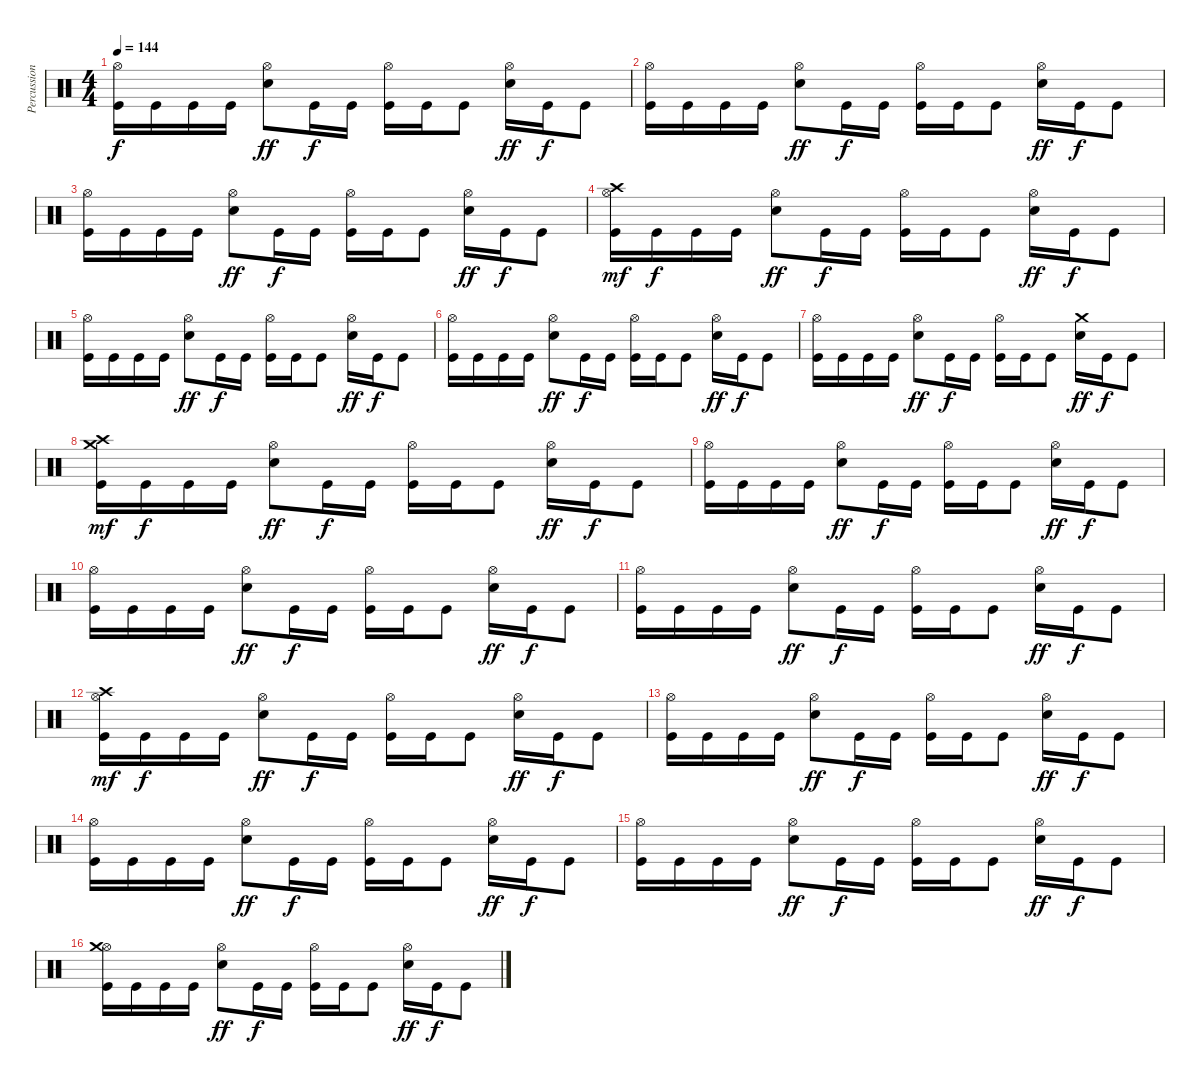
\track ("Percussions" "Percussion") {instrument percussion}
\staff {score}
\articulation defaults
\ts (4 4)
\tempo 144
\clef neutral
\ks c
("Kick (hit)" "Hi-Hat (open)").16{dy f} "Kick (hit)".16 "Kick (hit)".16 "Kick (hit)".16 ("Electric Snare (hit)" "Hi-Hat (open)").8{dy ff} "Kick (hit)".16{dy f} "Kick (hit)".16 ("Kick (hit)" "Hi-Hat (open)").16 "Kick (hit)".16 "Kick (hit)".8 ("Electric Snare (hit)" "Hi-Hat (open)").16{dy ff} "Kick (hit)".16{dy f} "Kick (hit)".8 |
("Kick (hit)" "Hi-Hat (open)").16 "Kick (hit)".16 "Kick (hit)".16 "Kick (hit)".16 ("Electric Snare (hit)" "Hi-Hat (open)").8{dy ff} "Kick (hit)".16{dy f} "Kick (hit)".16 ("Kick (hit)" "Hi-Hat (open)").16 "Kick (hit)".16 "Kick (hit)".8 ("Electric Snare (hit)" "Hi-Hat (open)").16{dy ff} "Kick (hit)".16{dy f} "Kick (hit)".8 |
("Kick (hit)" "Hi-Hat (open)").16 "Kick (hit)".16 "Kick (hit)".16 "Kick (hit)".16 ("Electric Snare (hit)" "Hi-Hat (open)").8{dy ff} "Kick (hit)".16{dy f} "Kick (hit)".16 ("Kick (hit)" "Hi-Hat (open)").16 "Kick (hit)".16 "Kick (hit)".8 ("Electric Snare (hit)" "Hi-Hat (open)").16{dy ff} "Kick (hit)".16{dy f} "Kick (hit)".8 |
("Kick (hit)" "Hi-Hat (open)" "Crash high (hit)").16{dy mf} "Kick (hit)".16{dy f} "Kick (hit)".16 "Kick (hit)".16 ("Electric Snare (hit)" "Hi-Hat (open)").8{dy ff} "Kick (hit)".16{dy f} "Kick (hit)".16 ("Kick (hit)" "Hi-Hat (open)").16 "Kick (hit)".16 "Kick (hit)".8 ("Electric Snare (hit)" "Hi-Hat (open)").16{dy ff} "Kick (hit)".16{dy f} "Kick (hit)".8 |
("Kick (hit)" "Hi-Hat (open)").16 "Kick (hit)".16 "Kick (hit)".16 "Kick (hit)".16 ("Electric Snare (hit)" "Hi-Hat (open)").8{dy ff} "Kick (hit)".16{dy f} "Kick (hit)".16 ("Kick (hit)" "Hi-Hat (open)").16 "Kick (hit)".16 "Kick (hit)".8 ("Electric Snare (hit)" "Hi-Hat (open)").16{dy ff} "Kick (hit)".16{dy f} "Kick (hit)".8 |
("Kick (hit)" "Hi-Hat (open)").16 "Kick (hit)".16 "Kick (hit)".16 "Kick (hit)".16 ("Electric Snare (hit)" "Hi-Hat (open)").8{dy ff} "Kick (hit)".16{dy f} "Kick (hit)".16 ("Kick (hit)" "Hi-Hat (open)").16 "Kick (hit)".16 "Kick (hit)".8 ("Electric Snare (hit)" "Hi-Hat (open)").16{dy ff} "Kick (hit)".16{dy f} "Kick (hit)".8 |
("Kick (hit)" "Hi-Hat (open)").16 "Kick (hit)".16 "Kick (hit)".16 "Kick (hit)".16 ("Electric Snare (hit)" "Hi-Hat (open)").8{dy ff} "Kick (hit)".16{dy f} "Kick (hit)".16 ("Kick (hit)" "Hi-Hat (open)").16 "Kick (hit)".16 "Kick (hit)".8 ("Electric Snare (hit)" "Crash medium (hit)").16{dy ff} "Kick (hit)".16{dy f} "Kick (hit)".8 |
("Kick (hit)" "Crash medium (hit)" "Crash high (hit)").16{dy mf} "Kick (hit)".16{dy f} "Kick (hit)".16 "Kick (hit)".16 ("Electric Snare (hit)" "Hi-Hat (open)").8{dy ff} "Kick (hit)".16{dy f} "Kick (hit)".16 ("Kick (hit)" "Hi-Hat (open)").16 "Kick (hit)".16 "Kick (hit)".8 ("Electric Snare (hit)" "Hi-Hat (open)").16{dy ff} "Kick (hit)".16{dy f} "Kick (hit)".8 |
("Kick (hit)" "Hi-Hat (open)").16 "Kick (hit)".16 "Kick (hit)".16 "Kick (hit)".16 ("Electric Snare (hit)" "Hi-Hat (open)").8{dy ff} "Kick (hit)".16{dy f} "Kick (hit)".16 ("Kick (hit)" "Hi-Hat (open)").16 "Kick (hit)".16 "Kick (hit)".8 ("Electric Snare (hit)" "Hi-Hat (open)").16{dy ff} "Kick (hit)".16{dy f} "Kick (hit)".8 |
("Kick (hit)" "Hi-Hat (open)").16 "Kick (hit)".16 "Kick (hit)".16 "Kick (hit)".16 ("Electric Snare (hit)" "Hi-Hat (open)").8{dy ff} "Kick (hit)".16{dy f} "Kick (hit)".16 ("Kick (hit)" "Hi-Hat (open)").16 "Kick (hit)".16 "Kick (hit)".8 ("Electric Snare (hit)" "Hi-Hat (open)").16{dy ff} "Kick (hit)".16{dy f} "Kick (hit)".8 |
("Kick (hit)" "Hi-Hat (open)").16 "Kick (hit)".16 "Kick (hit)".16 "Kick (hit)".16 ("Electric Snare (hit)" "Hi-Hat (open)").8{dy ff} "Kick (hit)".16{dy f} "Kick (hit)".16 ("Kick (hit)" "Hi-Hat (open)").16 "Kick (hit)".16 "Kick (hit)".8 ("Electric Snare (hit)" "Hi-Hat (open)").16{dy ff} "Kick (hit)".16{dy f} "Kick (hit)".8 |
("Kick (hit)" "Hi-Hat (open)" "Crash high (hit)").16{dy mf} "Kick (hit)".16{dy f} "Kick (hit)".16 "Kick (hit)".16 ("Electric Snare (hit)" "Hi-Hat (open)").8{dy ff} "Kick (hit)".16{dy f} "Kick (hit)".16 ("Kick (hit)" "Hi-Hat (open)").16 "Kick (hit)".16 "Kick (hit)".8 ("Electric Snare (hit)" "Hi-Hat (open)").16{dy ff} "Kick (hit)".16{dy f} "Kick (hit)".8 |
("Kick (hit)" "Hi-Hat (open)").16 "Kick (hit)".16 "Kick (hit)".16 "Kick (hit)".16 ("Electric Snare (hit)" "Hi-Hat (open)").8{dy ff} "Kick (hit)".16{dy f} "Kick (hit)".16 ("Kick (hit)" "Hi-Hat (open)").16 "Kick (hit)".16 "Kick (hit)".8 ("Electric Snare (hit)" "Hi-Hat (open)").16{dy ff} "Kick (hit)".16{dy f} "Kick (hit)".8 |
("Kick (hit)" "Hi-Hat (open)").16 "Kick (hit)".16 "Kick (hit)".16 "Kick (hit)".16 ("Electric Snare (hit)" "Hi-Hat (open)").8{dy ff} "Kick (hit)".16{dy f} "Kick (hit)".16 ("Kick (hit)" "Hi-Hat (open)").16 "Kick (hit)".16 "Kick (hit)".8 ("Electric Snare (hit)" "Hi-Hat (open)").16{dy ff} "Kick (hit)".16{dy f} "Kick (hit)".8 |
("Kick (hit)" "Hi-Hat (open)").16 "Kick (hit)".16 "Kick (hit)".16 "Kick (hit)".16 ("Electric Snare (hit)" "Hi-Hat (open)").8{dy ff} "Kick (hit)".16{dy f} "Kick (hit)".16 ("Kick (hit)" "Hi-Hat (open)").16 "Kick (hit)".16 "Kick (hit)".8 ("Electric Snare (hit)" "Hi-Hat (open)").16{dy ff} "Kick (hit)".16{dy f} "Kick (hit)".8 |
("Kick (hit)" "Hi-Hat (open)" "Crash medium (hit)").16 "Kick (hit)".16 "Kick (hit)".16 "Kick (hit)".16 ("Electric Snare (hit)" "Hi-Hat (open)").8{dy ff} "Kick (hit)".16{dy f} "Kick (hit)".16 ("Kick (hit)" "Hi-Hat (open)").16 "Kick (hit)".16 "Kick (hit)".8 ("Electric Snare (hit)" "Hi-Hat (open)").16{dy ff} "Kick (hit)".16{dy f} "Kick (hit)".8
